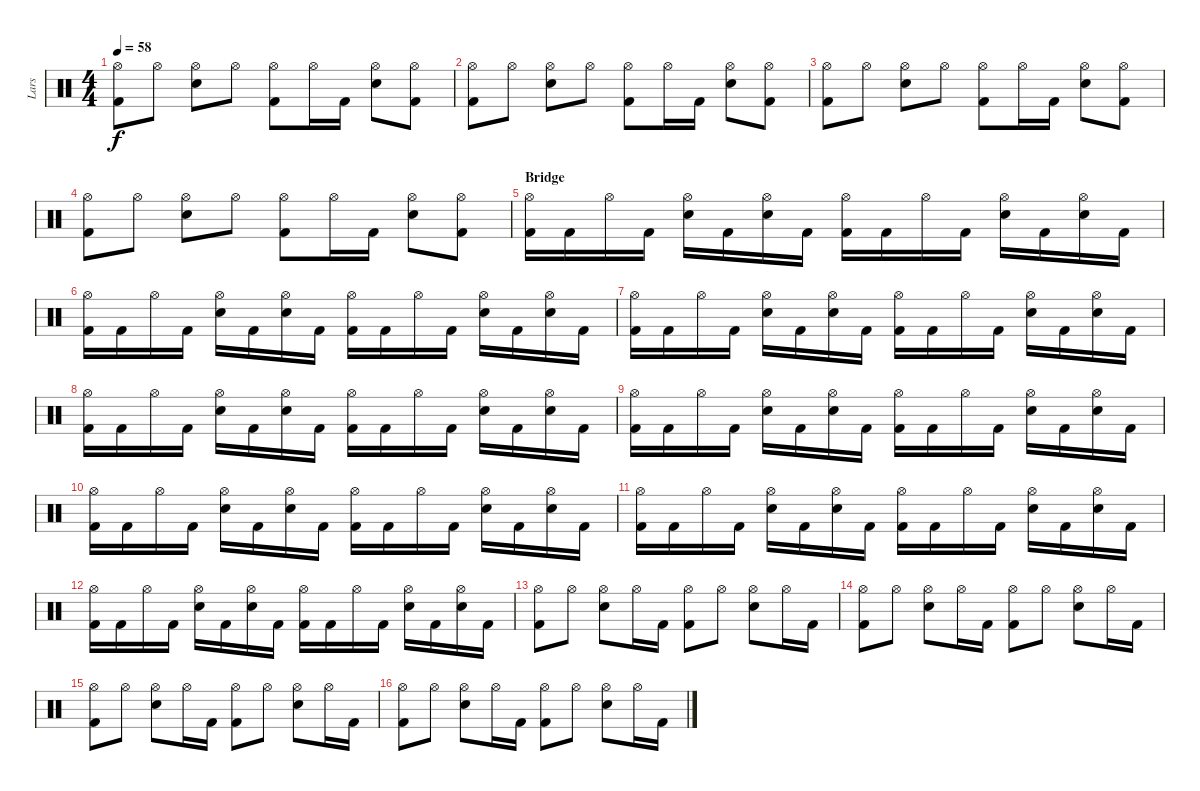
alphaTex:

\track ("Lars " "Lars ") {instrument percussion}
\staff {score}
\articulation defaults
\ts (4 4)
\tempo 58
\clef neutral
\ks c
("Kick (hit) 2" "Hi-Hat (open)").8{dy f} "Hi-Hat (open)".8 ("Snare (hit) 2" "Hi-Hat (open)").8 "Hi-Hat (open)".8 ("Kick (hit) 2" "Hi-Hat (open)").8 "Hi-Hat (open)".16 "Kick (hit) 2".16 ("Snare (hit) 2" "Hi-Hat (open)").8 ("Kick (hit) 2" "Hi-Hat (open)").8 |
("Kick (hit) 2" "Hi-Hat (open)").8 "Hi-Hat (open)".8 ("Snare (hit) 2" "Hi-Hat (open)").8 "Hi-Hat (open)".8 ("Kick (hit) 2" "Hi-Hat (open)").8 "Hi-Hat (open)".16 "Kick (hit) 2".16 ("Snare (hit) 2" "Hi-Hat (open)").8 ("Kick (hit) 2" "Hi-Hat (open)").8 |
("Kick (hit) 2" "Hi-Hat (open)").8 "Hi-Hat (open)".8 ("Snare (hit) 2" "Hi-Hat (open)").8 "Hi-Hat (open)".8 ("Kick (hit) 2" "Hi-Hat (open)").8 "Hi-Hat (open)".16 "Kick (hit) 2".16 ("Snare (hit) 2" "Hi-Hat (open)").8 ("Kick (hit) 2" "Hi-Hat (open)").8 |
("Kick (hit) 2" "Hi-Hat (open)").8 "Hi-Hat (open)".8 ("Snare (hit) 2" "Hi-Hat (open)").8 "Hi-Hat (open)".8 ("Kick (hit) 2" "Hi-Hat (open)").8 "Hi-Hat (open)".16 "Kick (hit) 2".16 ("Snare (hit) 2" "Hi-Hat (open)").8 ("Kick (hit) 2" "Hi-Hat (open)").8 |
\section ("" "Bridge")
("Kick (hit) 2" "Hi-Hat (open)").16 "Kick (hit) 2".16 "Hi-Hat (open)".16 "Kick (hit) 2".16 ("Snare (hit) 2" "Hi-Hat (open)").16 "Kick (hit) 2".16 ("Snare (hit) 2" "Hi-Hat (open)").16 "Kick (hit) 2".16 ("Kick (hit) 2" "Hi-Hat (open)").16 "Kick (hit) 2".16 "Hi-Hat (open)".16 "Kick (hit) 2".16 ("Snare (hit) 2" "Hi-Hat (open)").16 "Kick (hit) 2".16 ("Snare (hit) 2" "Hi-Hat (open)").16 "Kick (hit) 2".16 |
("Kick (hit) 2" "Hi-Hat (open)").16 "Kick (hit) 2".16 "Hi-Hat (open)".16 "Kick (hit) 2".16 ("Snare (hit) 2" "Hi-Hat (open)").16 "Kick (hit) 2".16 ("Snare (hit) 2" "Hi-Hat (open)").16 "Kick (hit) 2".16 ("Kick (hit) 2" "Hi-Hat (open)").16 "Kick (hit) 2".16 "Hi-Hat (open)".16 "Kick (hit) 2".16 ("Snare (hit) 2" "Hi-Hat (open)").16 "Kick (hit) 2".16 ("Snare (hit) 2" "Hi-Hat (open)").16 "Kick (hit) 2".16 |
("Kick (hit) 2" "Hi-Hat (open)").16 "Kick (hit) 2".16 "Hi-Hat (open)".16 "Kick (hit) 2".16 ("Snare (hit) 2" "Hi-Hat (open)").16 "Kick (hit) 2".16 ("Snare (hit) 2" "Hi-Hat (open)").16 "Kick (hit) 2".16 ("Kick (hit) 2" "Hi-Hat (open)").16 "Kick (hit) 2".16 "Hi-Hat (open)".16 "Kick (hit) 2".16 ("Snare (hit) 2" "Hi-Hat (open)").16 "Kick (hit) 2".16 ("Snare (hit) 2" "Hi-Hat (open)").16 "Kick (hit) 2".16 |
("Kick (hit) 2" "Hi-Hat (open)").16 "Kick (hit) 2".16 "Hi-Hat (open)".16 "Kick (hit) 2".16 ("Snare (hit) 2" "Hi-Hat (open)").16 "Kick (hit) 2".16 ("Snare (hit) 2" "Hi-Hat (open)").16 "Kick (hit) 2".16 ("Kick (hit) 2" "Hi-Hat (open)").16 "Kick (hit) 2".16 "Hi-Hat (open)".16 "Kick (hit) 2".16 ("Snare (hit) 2" "Hi-Hat (open)").16 "Kick (hit) 2".16 ("Snare (hit) 2" "Hi-Hat (open)").16 "Kick (hit) 2".16 |
("Kick (hit) 2" "Hi-Hat (open)").16 "Kick (hit) 2".16 "Hi-Hat (open)".16 "Kick (hit) 2".16 ("Snare (hit) 2" "Hi-Hat (open)").16 "Kick (hit) 2".16 ("Snare (hit) 2" "Hi-Hat (open)").16 "Kick (hit) 2".16 ("Kick (hit) 2" "Hi-Hat (open)").16 "Kick (hit) 2".16 "Hi-Hat (open)".16 "Kick (hit) 2".16 ("Snare (hit) 2" "Hi-Hat (open)").16 "Kick (hit) 2".16 ("Snare (hit) 2" "Hi-Hat (open)").16 "Kick (hit) 2".16 |
("Kick (hit) 2" "Hi-Hat (open)").16 "Kick (hit) 2".16 "Hi-Hat (open)".16 "Kick (hit) 2".16 ("Snare (hit) 2" "Hi-Hat (open)").16 "Kick (hit) 2".16 ("Snare (hit) 2" "Hi-Hat (open)").16 "Kick (hit) 2".16 ("Kick (hit) 2" "Hi-Hat (open)").16 "Kick (hit) 2".16 "Hi-Hat (open)".16 "Kick (hit) 2".16 ("Snare (hit) 2" "Hi-Hat (open)").16 "Kick (hit) 2".16 ("Snare (hit) 2" "Hi-Hat (open)").16 "Kick (hit) 2".16 |
("Kick (hit) 2" "Hi-Hat (open)").16 "Kick (hit) 2".16 "Hi-Hat (open)".16 "Kick (hit) 2".16 ("Snare (hit) 2" "Hi-Hat (open)").16 "Kick (hit) 2".16 ("Snare (hit) 2" "Hi-Hat (open)").16 "Kick (hit) 2".16 ("Kick (hit) 2" "Hi-Hat (open)").16 "Kick (hit) 2".16 "Hi-Hat (open)".16 "Kick (hit) 2".16 ("Snare (hit) 2" "Hi-Hat (open)").16 "Kick (hit) 2".16 ("Snare (hit) 2" "Hi-Hat (open)").16 "Kick (hit) 2".16 |
("Kick (hit) 2" "Hi-Hat (open)").16 "Kick (hit) 2".16 "Hi-Hat (open)".16 "Kick (hit) 2".16 ("Snare (hit) 2" "Hi-Hat (open)").16 "Kick (hit) 2".16 ("Snare (hit) 2" "Hi-Hat (open)").16 "Kick (hit) 2".16 ("Kick (hit) 2" "Hi-Hat (open)").16 "Kick (hit) 2".16 "Hi-Hat (open)".16 "Kick (hit) 2".16 ("Snare (hit) 2" "Hi-Hat (open)").16 "Kick (hit) 2".16 ("Snare (hit) 2" "Hi-Hat (open)").16 "Kick (hit) 2".16 |
("Kick (hit) 2" "Hi-Hat (open)").8 "Hi-Hat (open)".8 ("Snare (hit) 2" "Hi-Hat (open)").8 "Hi-Hat (open)".16 "Kick (hit) 2".16 ("Kick (hit) 2" "Hi-Hat (open)").8 "Hi-Hat (open)".8 ("Snare (hit) 2" "Hi-Hat (open)").8 "Hi-Hat (open)".16 "Kick (hit) 2".16 |
("Kick (hit) 2" "Hi-Hat (open)").8 "Hi-Hat (open)".8 ("Snare (hit) 2" "Hi-Hat (open)").8 "Hi-Hat (open)".16 "Kick (hit) 2".16 ("Kick (hit) 2" "Hi-Hat (open)").8 "Hi-Hat (open)".8 ("Snare (hit) 2" "Hi-Hat (open)").8 "Hi-Hat (open)".16 "Kick (hit) 2".16 |
("Kick (hit) 2" "Hi-Hat (open)").8 "Hi-Hat (open)".8 ("Snare (hit) 2" "Hi-Hat (open)").8 "Hi-Hat (open)".16 "Kick (hit) 2".16 ("Kick (hit) 2" "Hi-Hat (open)").8 "Hi-Hat (open)".8 ("Snare (hit) 2" "Hi-Hat (open)").8 "Hi-Hat (open)".16 "Kick (hit) 2".16 |
("Kick (hit) 2" "Hi-Hat (open)").8 "Hi-Hat (open)".8 ("Snare (hit) 2" "Hi-Hat (open)").8 "Hi-Hat (open)".16 "Kick (hit) 2".16 ("Kick (hit) 2" "Hi-Hat (open)").8 "Hi-Hat (open)".8 ("Snare (hit) 2" "Hi-Hat (open)").8 "Hi-Hat (open)".16 "Kick (hit) 2".16
